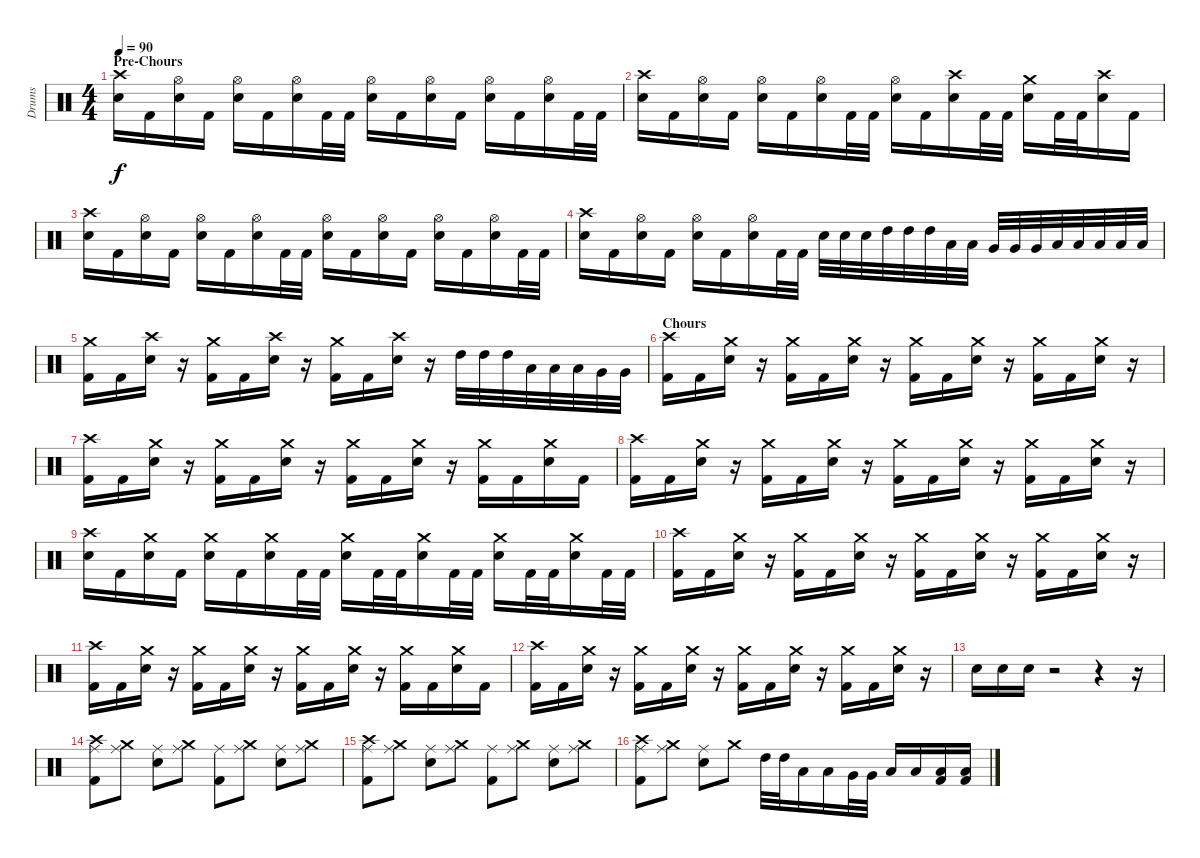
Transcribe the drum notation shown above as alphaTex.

\track ("Drums" "Drums") {instrument percussion}
\staff {score}
\articulation defaults
\ts (4 4)
\section ("" "Pre-Chours")
\tempo 90
\clef neutral
\ks c
("Crash high (hit)" "Snare (hit) 2").16{dy f} "Kick (hit) 2".16 ("Hi-Hat (open)" "Snare (hit) 2").16 "Kick (hit) 2".16 ("Hi-Hat (open)" "Snare (hit) 2").16 "Kick (hit) 2".16 ("Hi-Hat (open)" "Snare (hit) 2").16 "Kick (hit) 2".32 "Kick (hit) 2".32 ("Hi-Hat (open)" "Snare (hit) 2").16 "Kick (hit) 2".16 ("Hi-Hat (open)" "Snare (hit) 2").16 "Kick (hit) 2".16 ("Hi-Hat (open)" "Snare (hit) 2").16 "Kick (hit) 2".16 ("Hi-Hat (open)" "Snare (hit) 2").16 "Kick (hit) 2".32 "Kick (hit) 2".32 |
("Crash high (hit)" "Snare (hit) 2").16 "Kick (hit) 2".16 ("Hi-Hat (open)" "Snare (hit) 2").16 "Kick (hit) 2".16 ("Hi-Hat (open)" "Snare (hit) 2").16 "Kick (hit) 2".16 ("Hi-Hat (open)" "Snare (hit) 2").16 "Kick (hit) 2".32 "Kick (hit) 2".32 ("Hi-Hat (open)" "Snare (hit) 2").16 "Kick (hit) 2".16 ("Crash high (hit)" "Snare (hit) 2").16 "Kick (hit) 2".32 "Kick (hit) 2".32 ("Crash medium (hit)" "Snare (hit) 2").16 "Kick (hit) 2".32 "Kick (hit) 2".32 ("Crash high (hit)" "Snare (hit) 2").16 "Kick (hit) 2".16 |
("Crash high (hit)" "Snare (hit) 2").16 "Kick (hit) 2".16 ("Hi-Hat (open)" "Snare (hit) 2").16 "Kick (hit) 2".16 ("Hi-Hat (open)" "Snare (hit) 2").16 "Kick (hit) 2".16 ("Hi-Hat (open)" "Snare (hit) 2").16 "Kick (hit) 2".32 "Kick (hit) 2".32 ("Hi-Hat (open)" "Snare (hit) 2").16 "Kick (hit) 2".16 ("Hi-Hat (open)" "Snare (hit) 2").16 "Kick (hit) 2".16 ("Hi-Hat (open)" "Snare (hit) 2").16 "Kick (hit) 2".16 ("Hi-Hat (open)" "Snare (hit) 2").16 "Kick (hit) 2".32 "Kick (hit) 2".32 |
("Crash high (hit)" "Snare (hit) 2").16 "Kick (hit) 2".16 ("Hi-Hat (open)" "Snare (hit) 2").16 "Kick (hit) 2".16 ("Hi-Hat (open)" "Snare (hit) 2").16 "Kick (hit) 2".16 ("Hi-Hat (open)" "Snare (hit) 2").16 "Kick (hit) 2".32 "Kick (hit) 2".32 "Snare (hit) 2".32 "Snare (hit) 2".32 "Snare (hit) 2".32 "High Tom (hit)".32 "High Tom (hit)".32 "High Tom (hit)".32 "Low Tom (hit)".32 "Low Tom (hit)".32 "Very Low Tom (hit)".32 "Very Low Tom (hit)".32 "Very Low Tom (hit)".32 "Low Floor Tom (hit)".32 "Low Floor Tom (hit)".32 "Low Floor Tom (hit)".32 "Low Floor Tom (hit)".32 "Low Floor Tom (hit)".32 |
("Crash medium (hit)" "Kick (hit) 2").16 "Kick (hit) 2".16 ("Crash high (hit)" "Snare (hit) 2").16 r.16 ("Crash medium (hit)" "Kick (hit) 2").16 "Kick (hit) 2".16 ("Crash high (hit)" "Snare (hit) 2").16 r.16 ("Crash medium (hit)" "Kick (hit) 2").16 "Kick (hit) 2".16 ("Crash high (hit)" "Snare (hit) 2").16 r.16 "High Tom (hit)".32 "High Tom (hit)".32 "High Tom (hit)".32 "Low Tom (hit)".32 "Low Tom (hit)".32 "Low Tom (hit)".32 "Very Low Tom (hit)".32 "Very Low Tom (hit)".32 |
\section ("" "Chours")
("Crash high (hit)" "Kick (hit) 2").16 "Kick (hit) 2".16 ("Crash medium (hit)" "Snare (hit) 2").16 r.16 ("Crash medium (hit)" "Kick (hit) 2").16 "Kick (hit) 2".16 ("Crash medium (hit)" "Snare (hit) 2").16 r.16 ("Crash medium (hit)" "Kick (hit) 2").16 "Kick (hit) 2".16 ("Crash medium (hit)" "Snare (hit) 2").16 r.16 ("Crash medium (hit)" "Kick (hit) 2").16 "Kick (hit) 2".16 ("Crash medium (hit)" "Snare (hit) 2").16 r.16 |
("Crash high (hit)" "Kick (hit) 2").16 "Kick (hit) 2".16 ("Crash medium (hit)" "Snare (hit) 2").16 r.16 ("Crash medium (hit)" "Kick (hit) 2").16 "Kick (hit) 2".16 ("Crash medium (hit)" "Snare (hit) 2").16 r.16 ("Crash medium (hit)" "Kick (hit) 2").16 "Kick (hit) 2".16 ("Crash medium (hit)" "Snare (hit) 2").16 r.16 ("Crash medium (hit)" "Kick (hit) 2").16 "Kick (hit) 2".16 ("Crash medium (hit)" "Snare (hit) 2").16 "Kick (hit) 2".16 |
("Crash high (hit)" "Kick (hit) 2").16 "Kick (hit) 2".16 ("Crash medium (hit)" "Snare (hit) 2").16 r.16 ("Crash medium (hit)" "Kick (hit) 2").16 "Kick (hit) 2".16 ("Crash medium (hit)" "Snare (hit) 2").16 r.16 ("Crash medium (hit)" "Kick (hit) 2").16 "Kick (hit) 2".16 ("Crash medium (hit)" "Snare (hit) 2").16 r.16 ("Crash medium (hit)" "Kick (hit) 2").16 "Kick (hit) 2".16 ("Crash medium (hit)" "Snare (hit) 2").16 r.16 |
("Crash high (hit)" "Snare (hit) 2").16 "Kick (hit) 2".16 ("Crash medium (hit)" "Snare (hit) 2").16 "Kick (hit) 2".16 ("Crash medium (hit)" "Snare (hit) 2").16 "Kick (hit) 2".16 ("Crash medium (hit)" "Snare (hit) 2").16 "Kick (hit) 2".32 "Kick (hit) 2".32 ("Crash medium (hit)" "Snare (hit) 2").16 "Kick (hit) 2".32 "Kick (hit) 2".32 ("Crash medium (hit)" "Snare (hit) 2").16 "Kick (hit) 2".32 "Kick (hit) 2".32 ("Crash medium (hit)" "Snare (hit) 2").16 "Kick (hit) 2".32 "Kick (hit) 2".32 ("Crash medium (hit)" "Snare (hit) 2").16 "Kick (hit) 2".32 "Kick (hit) 2".32 |
("Crash high (hit)" "Kick (hit) 2").16 "Kick (hit) 2".16 ("Crash medium (hit)" "Snare (hit) 2").16 r.16 ("Crash medium (hit)" "Kick (hit) 2").16 "Kick (hit) 2".16 ("Crash medium (hit)" "Snare (hit) 2").16 r.16 ("Crash medium (hit)" "Kick (hit) 2").16 "Kick (hit) 2".16 ("Crash medium (hit)" "Snare (hit) 2").16 r.16 ("Crash medium (hit)" "Kick (hit) 2").16 "Kick (hit) 2".16 ("Crash medium (hit)" "Snare (hit) 2").16 r.16 |
("Crash high (hit)" "Kick (hit) 2").16 "Kick (hit) 2".16 ("Crash medium (hit)" "Snare (hit) 2").16 r.16 ("Crash medium (hit)" "Kick (hit) 2").16 "Kick (hit) 2".16 ("Crash medium (hit)" "Snare (hit) 2").16 r.16 ("Crash medium (hit)" "Kick (hit) 2").16 "Kick (hit) 2".16 ("Crash medium (hit)" "Snare (hit) 2").16 r.16 ("Crash medium (hit)" "Kick (hit) 2").16 "Kick (hit) 2".16 ("Crash medium (hit)" "Snare (hit) 2").16 "Kick (hit) 2".16 |
("Crash high (hit)" "Kick (hit) 2").16 "Kick (hit) 2".16 ("Crash medium (hit)" "Snare (hit) 2").16 r.16 ("Crash medium (hit)" "Kick (hit) 2").16 "Kick (hit) 2".16 ("Crash medium (hit)" "Snare (hit) 2").16 r.16 ("Crash medium (hit)" "Kick (hit) 2").16 "Kick (hit) 2".16 ("Crash medium (hit)" "Snare (hit) 2").16 r.16 ("Crash medium (hit)" "Kick (hit) 2").16 "Kick (hit) 2".16 ("Crash medium (hit)" "Snare (hit) 2").16 r.16 |
"Snare (hit) 2".16 "Snare (hit) 2".16 "Snare (hit) 2".16 r.2 r.4 r.16 |
("Crash high (hit)" "Ride (middle)" "Kick (hit) 2").8 ("Crash medium (hit)" "Ride (middle)").8 ("Ride (middle)" "Snare (hit) 2").8 ("Crash medium (hit)" "Ride (middle)").8 ("Ride (middle)" "Kick (hit) 2").8 ("Crash medium (hit)" "Ride (middle)").8 ("Ride (middle)" "Snare (hit) 2").8 ("Crash medium (hit)" "Ride (middle)").8 |
("Crash high (hit)" "Ride (middle)" "Kick (hit) 2").8 ("Crash medium (hit)" "Ride (middle)").8 ("Ride (middle)" "Snare (hit) 2").8 ("Crash medium (hit)" "Ride (middle)").8 ("Ride (middle)" "Kick (hit) 2").8 ("Crash medium (hit)" "Ride (middle)").8 ("Ride (middle)" "Snare (hit) 2").8 ("Crash medium (hit)" "Ride (middle)").8 |
("Crash high (hit)" "Ride (middle)" "Kick (hit) 2").8 ("Crash medium (hit)" "Ride (middle)").8 ("Ride (middle)" "Snare (hit) 2").8 "Crash medium (hit)".8 "High Tom (hit)".32 "High Tom (hit)".32 "Low Tom (hit)".16 "Low Tom (hit)".16 "Very Low Tom (hit)".32 "Very Low Tom (hit)".32 "Low Floor Tom (hit)".16 "Low Floor Tom (hit)".16 ("Low Tom (hit)" "Kick (hit) 2").16 ("Low Tom (hit)" "Kick (hit) 2").16
